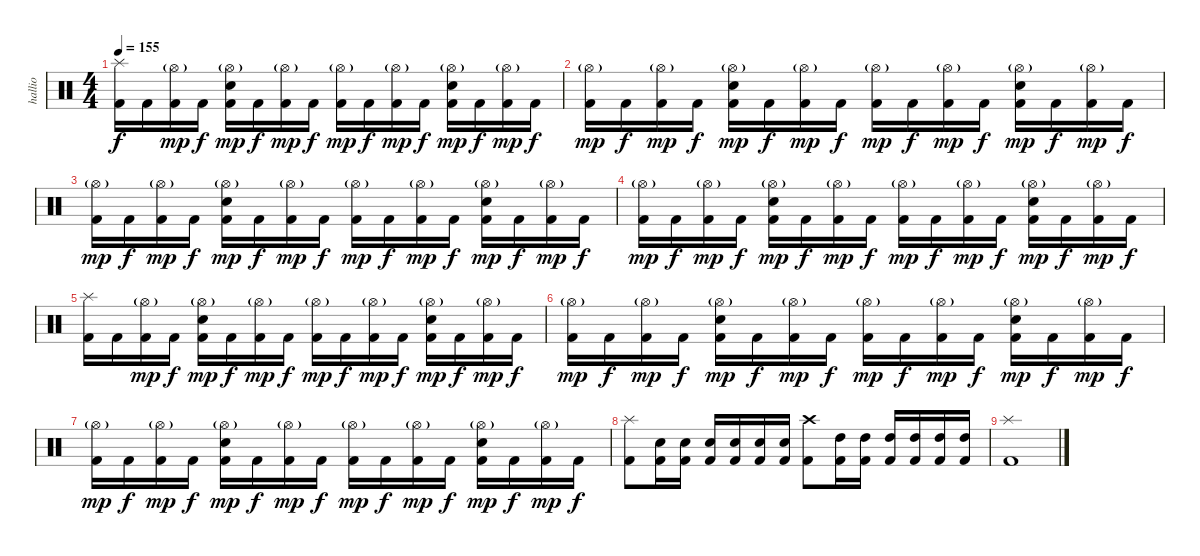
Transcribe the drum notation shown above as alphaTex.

\track ("hallio" "hallio") {instrument percussion}
\staff {score}
\articulation defaults
\ts (4 4)
\tempo 155
\clef neutral
\ks c
("Kick (hit) 2" "Splash (hit)").16{dy f} "Kick (hit) 2".16 ("Kick (hit) 2" "Hi-Hat (open)"{g}).16{dy mp} "Kick (hit) 2".16{dy f} ("Kick (hit) 2" "Snare (hit) 2" "Hi-Hat (open)"{g}).16{dy mp} "Kick (hit) 2".16{dy f} ("Kick (hit) 2" "Hi-Hat (open)"{g}).16{dy mp} "Kick (hit) 2".16{dy f} ("Kick (hit) 2" "Hi-Hat (open)"{g}).16{dy mp} "Kick (hit) 2".16{dy f} ("Kick (hit) 2" "Hi-Hat (open)"{g}).16{dy mp} "Kick (hit) 2".16{dy f} ("Kick (hit) 2" "Snare (hit) 2" "Hi-Hat (open)"{g}).16{dy mp} "Kick (hit) 2".16{dy f} ("Kick (hit) 2" "Hi-Hat (open)"{g}).16{dy mp} "Kick (hit) 2".16{dy f} |
("Kick (hit) 2" "Hi-Hat (open)"{g}).16{dy mp} "Kick (hit) 2".16{dy f} ("Kick (hit) 2" "Hi-Hat (open)"{g}).16{dy mp} "Kick (hit) 2".16{dy f} ("Kick (hit) 2" "Snare (hit) 2" "Hi-Hat (open)"{g}).16{dy mp} "Kick (hit) 2".16{dy f} ("Kick (hit) 2" "Hi-Hat (open)"{g}).16{dy mp} "Kick (hit) 2".16{dy f} ("Kick (hit) 2" "Hi-Hat (open)"{g}).16{dy mp} "Kick (hit) 2".16{dy f} ("Kick (hit) 2" "Hi-Hat (open)"{g}).16{dy mp} "Kick (hit) 2".16{dy f} ("Kick (hit) 2" "Snare (hit) 2" "Hi-Hat (open)"{g}).16{dy mp} "Kick (hit) 2".16{dy f} ("Kick (hit) 2" "Hi-Hat (open)"{g}).16{dy mp} "Kick (hit) 2".16{dy f} |
("Kick (hit) 2" "Hi-Hat (open)"{g}).16{dy mp} "Kick (hit) 2".16{dy f} ("Kick (hit) 2" "Hi-Hat (open)"{g}).16{dy mp} "Kick (hit) 2".16{dy f} ("Kick (hit) 2" "Snare (hit) 2" "Hi-Hat (open)"{g}).16{dy mp} "Kick (hit) 2".16{dy f} ("Kick (hit) 2" "Hi-Hat (open)"{g}).16{dy mp} "Kick (hit) 2".16{dy f} ("Kick (hit) 2" "Hi-Hat (open)"{g}).16{dy mp} "Kick (hit) 2".16{dy f} ("Kick (hit) 2" "Hi-Hat (open)"{g}).16{dy mp} "Kick (hit) 2".16{dy f} ("Kick (hit) 2" "Snare (hit) 2" "Hi-Hat (open)"{g}).16{dy mp} "Kick (hit) 2".16{dy f} ("Kick (hit) 2" "Hi-Hat (open)"{g}).16{dy mp} "Kick (hit) 2".16{dy f} |
("Kick (hit) 2" "Hi-Hat (open)"{g}).16{dy mp} "Kick (hit) 2".16{dy f} ("Kick (hit) 2" "Hi-Hat (open)"{g}).16{dy mp} "Kick (hit) 2".16{dy f} ("Kick (hit) 2" "Snare (hit) 2" "Hi-Hat (open)"{g}).16{dy mp} "Kick (hit) 2".16{dy f} ("Kick (hit) 2" "Hi-Hat (open)"{g}).16{dy mp} "Kick (hit) 2".16{dy f} ("Kick (hit) 2" "Hi-Hat (open)"{g}).16{dy mp} "Kick (hit) 2".16{dy f} ("Kick (hit) 2" "Hi-Hat (open)"{g}).16{dy mp} "Kick (hit) 2".16{dy f} ("Kick (hit) 2" "Snare (hit) 2" "Hi-Hat (open)"{g}).16{dy mp} "Kick (hit) 2".16{dy f} ("Kick (hit) 2" "Hi-Hat (open)"{g}).16{dy mp} "Kick (hit) 2".16{dy f} |
("Kick (hit) 2" "Splash (hit)").16 "Kick (hit) 2".16 ("Kick (hit) 2" "Hi-Hat (open)"{g}).16{dy mp} "Kick (hit) 2".16{dy f} ("Kick (hit) 2" "Snare (hit) 2" "Hi-Hat (open)"{g}).16{dy mp} "Kick (hit) 2".16{dy f} ("Kick (hit) 2" "Hi-Hat (open)"{g}).16{dy mp} "Kick (hit) 2".16{dy f} ("Kick (hit) 2" "Hi-Hat (open)"{g}).16{dy mp} "Kick (hit) 2".16{dy f} ("Kick (hit) 2" "Hi-Hat (open)"{g}).16{dy mp} "Kick (hit) 2".16{dy f} ("Kick (hit) 2" "Snare (hit) 2" "Hi-Hat (open)"{g}).16{dy mp} "Kick (hit) 2".16{dy f} ("Kick (hit) 2" "Hi-Hat (open)"{g}).16{dy mp} "Kick (hit) 2".16{dy f} |
("Kick (hit) 2" "Hi-Hat (open)"{g}).16{dy mp} "Kick (hit) 2".16{dy f} ("Kick (hit) 2" "Hi-Hat (open)"{g}).16{dy mp} "Kick (hit) 2".16{dy f} ("Kick (hit) 2" "Snare (hit) 2" "Hi-Hat (open)"{g}).16{dy mp} "Kick (hit) 2".16{dy f} ("Kick (hit) 2" "Hi-Hat (open)"{g}).16{dy mp} "Kick (hit) 2".16{dy f} ("Kick (hit) 2" "Hi-Hat (open)"{g}).16{dy mp} "Kick (hit) 2".16{dy f} ("Kick (hit) 2" "Hi-Hat (open)"{g}).16{dy mp} "Kick (hit) 2".16{dy f} ("Kick (hit) 2" "Snare (hit) 2" "Hi-Hat (open)"{g}).16{dy mp} "Kick (hit) 2".16{dy f} ("Kick (hit) 2" "Hi-Hat (open)"{g}).16{dy mp} "Kick (hit) 2".16{dy f} |
("Kick (hit) 2" "Hi-Hat (open)"{g}).16{dy mp} "Kick (hit) 2".16{dy f} ("Kick (hit) 2" "Hi-Hat (open)"{g}).16{dy mp} "Kick (hit) 2".16{dy f} ("Kick (hit) 2" "Snare (hit) 2" "Hi-Hat (open)"{g}).16{dy mp} "Kick (hit) 2".16{dy f} ("Kick (hit) 2" "Hi-Hat (open)"{g}).16{dy mp} "Kick (hit) 2".16{dy f} ("Kick (hit) 2" "Hi-Hat (open)"{g}).16{dy mp} "Kick (hit) 2".16{dy f} ("Kick (hit) 2" "Hi-Hat (open)"{g}).16{dy mp} "Kick (hit) 2".16{dy f} ("Kick (hit) 2" "Snare (hit) 2" "Hi-Hat (open)"{g}).16{dy mp} "Kick (hit) 2".16{dy f} ("Kick (hit) 2" "Hi-Hat (open)"{g}).16{dy mp} "Kick (hit) 2".16{dy f} |
("Kick (hit) 2" "Splash (hit)").8 ("Kick (hit) 2" "Snare (hit) 2").16 ("Kick (hit) 2" "Snare (hit) 2").16 ("Kick (hit) 2" "Snare (hit) 2").16 ("Kick (hit) 2" "Snare (hit) 2").16 ("Kick (hit) 2" "Snare (hit) 2").16 ("Kick (hit) 2" "Snare (hit) 2").16 ("Kick (hit) 2" "Crash high (hit)").8 ("Kick (hit) 2" "High Tom (hit)").16 ("Kick (hit) 2" "High Tom (hit)").16 ("Kick (hit) 2" "High Tom (hit)").16 ("Kick (hit) 2" "High Tom (hit)").16 ("Kick (hit) 2" "High Tom (hit)").16 ("Kick (hit) 2" "High Tom (hit)").16 |
("Kick (hit) 2" "Splash (hit)").1
